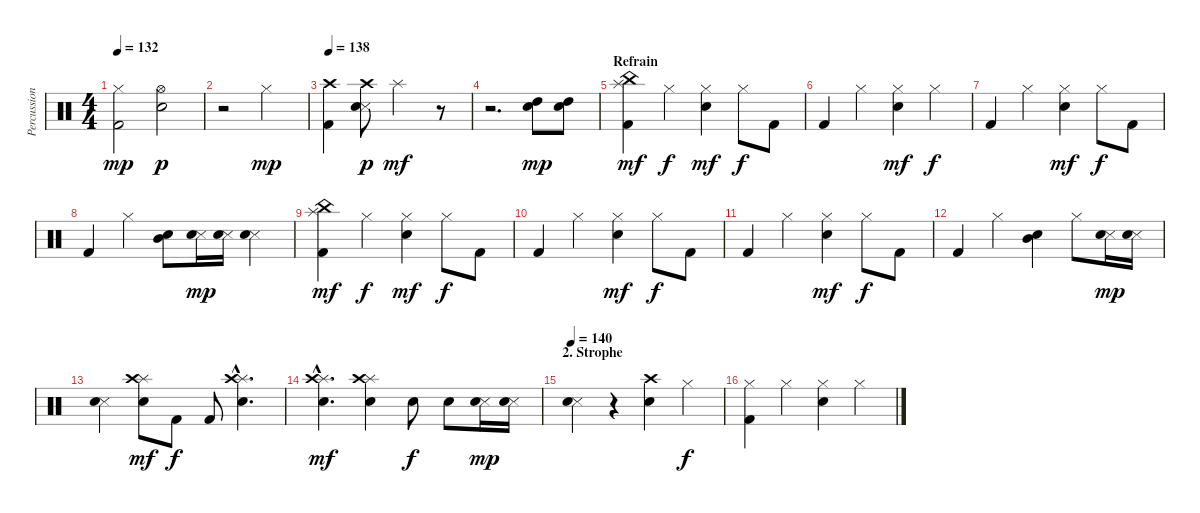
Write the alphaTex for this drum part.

\track ("Percussion" "Percussion") {instrument percussion}
\staff {score}
\articulation defaults
\ts (4 4)
\tempo 132
\clef neutral
\ks c
("Hi-Hat (closed)" "Kick (hit) 2").2{dy mp} ("Hi-Hat (open)" "Snare (hit) 2").2{dy p} |
r.2 "Hi-Hat (closed)".2{dy mp} |
\tempo 138
("Crash high (hit)" "Kick (hit) 2").4 ("Crash high (hit)" "Snare (side stick) 3" "Electric Snare (hit)").8{dy p} "Splash (hit)".2{dy mf} r.8 |
r.2{d} ("High Tom (hit)" "Snare (hit) 2").8{dy mp} ("High Tom (hit)" "Snare (hit) 2").8 |
\section ("" "Refrain")
("Splash (hit)" "China (hit)" "Kick (hit) 2").4{dy mf} "Hi-Hat (closed)".4{dy f} ("Hi-Hat (closed)" "Snare (hit) 2").4{dy mf} "Hi-Hat (closed)".8{dy f} "Kick (hit) 2".8 |
"Kick (hit) 2".4 "Hi-Hat (closed)".4 ("Hi-Hat (closed)" "Snare (hit) 2").4{dy mf} "Hi-Hat (closed)".4{dy f} |
"Kick (hit) 2".4 "Hi-Hat (closed)".4 ("Hi-Hat (closed)" "Snare (hit) 2").4{dy mf} "Hi-Hat (closed)".8{dy f} "Kick (hit) 2".8 |
"Kick (hit) 2".4 "Hi-Hat (closed)".4 ("Mid Tom (hit)" "Electric Snare (hit)").8 ("Snare (side stick) 3" "Electric Snare (hit)").16{dy mp} ("Snare (side stick) 3" "Electric Snare (hit)").16 ("Snare (side stick) 3" "Electric Snare (hit)").4 |
("Splash (hit)" "China (hit)" "Kick (hit) 2").4{dy mf} "Hi-Hat (closed)".4{dy f} ("Hi-Hat (closed)" "Snare (hit) 2").4{dy mf} "Hi-Hat (closed)".8{dy f} "Kick (hit) 2".8 |
"Kick (hit) 2".4 "Hi-Hat (closed)".4 ("Hi-Hat (closed)" "Snare (hit) 2").4{dy mf} "Hi-Hat (closed)".8{dy f} "Kick (hit) 2".8 |
"Kick (hit) 2".4 "Hi-Hat (closed)".4 ("Hi-Hat (closed)" "Snare (hit) 2").4{dy mf} "Hi-Hat (closed)".8{dy f} "Kick (hit) 2".8 |
"Kick (hit) 2".4 "Hi-Hat (closed)".4 ("Mid Tom (hit)" "Electric Snare (hit)").4 "Hi-Hat (closed)".8 ("Snare (side stick) 3" "Electric Snare (hit)").16{dy mp} ("Snare (side stick) 3" "Electric Snare (hit)").16 |
("Snare (side stick) 3" "Electric Snare (hit)").4 ("Splash (hit)" "Crash high (hit)" "Electric Snare (hit)").8{dy mf} "Kick (hit) 2".8{dy f} "Kick (hit) 2".8 ("Splash (hit)"{hac} "Crash high (hit)"{hac} "Electric Snare (hit)"{hac}).4{d} |
("Splash (hit)"{hac} "Crash high (hit)"{hac} "Electric Snare (hit)"{hac}).4{d dy mf} ("Splash (hit)" "Crash high (hit)" "Electric Snare (hit)").4 "Electric Snare (hit)".8{dy f} "Electric Snare (hit)".8 ("Snare (side stick) 3" "Electric Snare (hit)").16{dy mp} ("Snare (side stick) 3" "Electric Snare (hit)").16 |
\section ("" "2. Strophe")
\tempo 140
("Snare (side stick) 3" "Electric Snare (hit)").4 r.4 ("Crash high (hit)" "Snare (hit) 2").4 "Hi-Hat (closed)".4{dy f} |
("Hi-Hat (closed)" "Kick (hit) 2").4 "Hi-Hat (closed)".4 ("Hi-Hat (closed)" "Snare (hit) 2").4 "Hi-Hat (closed)".4
